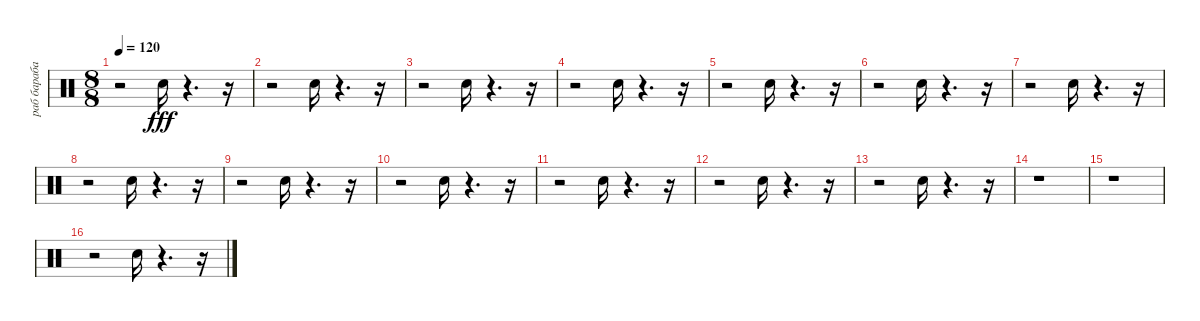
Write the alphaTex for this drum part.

\track ("раб барабан" "раб бараба") {instrument percussion}
\staff {score}
\articulation defaults
\ts (8 8)
\tempo 120
\clef neutral
\ks c
r.2{dy fff} "Snare (hit) 2".16 r.4{d} r.16 |
r.2 "Snare (hit) 2".16 r.4{d} r.16 |
r.2 "Snare (hit) 2".16 r.4{d} r.16 |
r.2 "Snare (hit) 2".16 r.4{d} r.16 |
r.2 "Snare (hit) 2".16 r.4{d} r.16 |
r.2 "Snare (hit) 2".16 r.4{d} r.16 |
r.2 "Snare (hit) 2".16 r.4{d} r.16 |
r.2 "Snare (hit) 2".16 r.4{d} r.16 |
r.2 "Snare (hit) 2".16 r.4{d} r.16 |
r.2 "Snare (hit) 2".16 r.4{d} r.16 |
r.2 "Snare (hit) 2".16 r.4{d} r.16 |
r.2 "Snare (hit) 2".16 r.4{d} r.16 |
r.2 "Snare (hit) 2".16 r.4{d} r.16 |
r.1 |
r.1 |
r.2 "Snare (hit) 2".16 r.4{d} r.16
